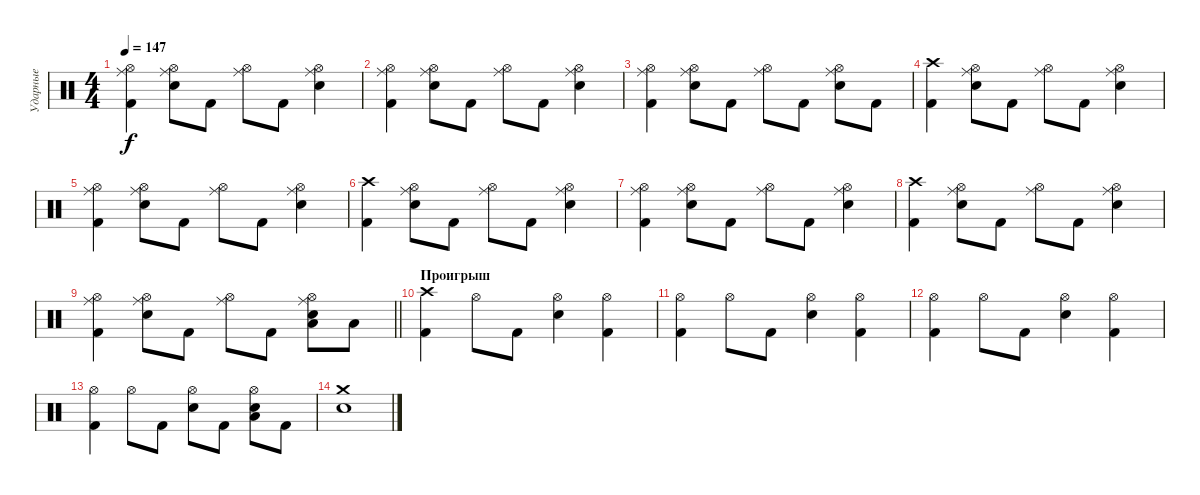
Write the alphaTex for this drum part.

\track ("Ударные" "Ударные") {instrument percussion}
\staff {score}
\articulation defaults
\ts (4 4)
\tempo 147
\clef neutral
\ks c
("Ride (middle)" "Hi-Hat (open)" "Kick (hit) 2").4{dy f} ("Ride (middle)" "Hi-Hat (open)" "Snare (hit) 2").8 "Kick (hit) 2".8 ("Ride (middle)" "Hi-Hat (open)").8 "Kick (hit) 2".8 ("Ride (middle)" "Hi-Hat (open)" "Snare (hit) 2").4 |
("Ride (middle)" "Hi-Hat (open)" "Kick (hit) 2").4 ("Ride (middle)" "Hi-Hat (open)" "Snare (hit) 2").8 "Kick (hit) 2".8 ("Ride (middle)" "Hi-Hat (open)").8 "Kick (hit) 2".8 ("Ride (middle)" "Hi-Hat (open)" "Snare (hit) 2").4 |
("Ride (middle)" "Hi-Hat (open)" "Kick (hit) 2").4 ("Ride (middle)" "Hi-Hat (open)" "Snare (hit) 2").8 "Kick (hit) 2".8 ("Ride (middle)" "Hi-Hat (open)").8 "Kick (hit) 2".8 ("Ride (middle)" "Hi-Hat (open)" "Snare (hit) 2").8 "Kick (hit) 2".8 |
("Crash high (hit)" "Kick (hit) 2").4 ("Ride (middle)" "Hi-Hat (open)" "Snare (hit) 2").8 "Kick (hit) 2".8 ("Ride (middle)" "Hi-Hat (open)").8 "Kick (hit) 2".8 ("Ride (middle)" "Hi-Hat (open)" "Snare (hit) 2").4 |
("Ride (middle)" "Hi-Hat (open)" "Kick (hit) 2").4 ("Ride (middle)" "Hi-Hat (open)" "Snare (hit) 2").8 "Kick (hit) 2".8 ("Ride (middle)" "Hi-Hat (open)").8 "Kick (hit) 2".8 ("Ride (middle)" "Hi-Hat (open)" "Snare (hit) 2").4 |
("Crash high (hit)" "Kick (hit) 2").4 ("Ride (middle)" "Hi-Hat (open)" "Snare (hit) 2").8 "Kick (hit) 2".8 ("Ride (middle)" "Hi-Hat (open)").8 "Kick (hit) 2".8 ("Ride (middle)" "Hi-Hat (open)" "Snare (hit) 2").4 |
("Ride (middle)" "Hi-Hat (open)" "Kick (hit) 2").4 ("Ride (middle)" "Hi-Hat (open)" "Snare (hit) 2").8 "Kick (hit) 2".8 ("Ride (middle)" "Hi-Hat (open)").8 "Kick (hit) 2".8 ("Ride (middle)" "Hi-Hat (open)" "Snare (hit) 2").4 |
("Crash high (hit)" "Kick (hit) 2").4 ("Ride (middle)" "Hi-Hat (open)" "Snare (hit) 2").8 "Kick (hit) 2".8 ("Ride (middle)" "Hi-Hat (open)").8 "Kick (hit) 2".8 ("Ride (middle)" "Hi-Hat (open)" "Snare (hit) 2").4 |
\barLineRight lightlight
("Ride (middle)" "Hi-Hat (open)" "Kick (hit) 2").4 ("Ride (middle)" "Hi-Hat (open)" "Snare (hit) 2").8 "Kick (hit) 2".8 ("Ride (middle)" "Hi-Hat (open)").8 "Kick (hit) 2".8 ("Ride (middle)" "Hi-Hat (open)" "Snare (hit) 2" "Low Floor Tom (hit)").8 "Low Floor Tom (hit)".8 |
\section ("" "Проигрыш")
("Crash high (hit)" "Kick (hit) 2").4 "Hi-Hat (open)".8 "Kick (hit) 2".8 ("Hi-Hat (open)" "Snare (hit) 2").4 ("Hi-Hat (open)" "Kick (hit) 2").4 |
("Hi-Hat (open)" "Kick (hit) 2").4 "Hi-Hat (open)".8 "Kick (hit) 2".8 ("Hi-Hat (open)" "Snare (hit) 2").4 ("Hi-Hat (open)" "Kick (hit) 2").4 |
("Hi-Hat (open)" "Kick (hit) 2").4 "Hi-Hat (open)".8 "Kick (hit) 2".8 ("Hi-Hat (open)" "Snare (hit) 2").4 ("Hi-Hat (open)" "Kick (hit) 2").4 |
("Hi-Hat (open)" "Kick (hit) 2").4 "Hi-Hat (open)".8 "Kick (hit) 2".8 ("Hi-Hat (open)" "Snare (hit) 2").8 "Kick (hit) 2".8 ("Hi-Hat (open)" "Snare (hit) 2" "Low Floor Tom (hit)").8 "Kick (hit) 2".8 |
("Crash medium (hit)" "Snare (hit) 2").1
